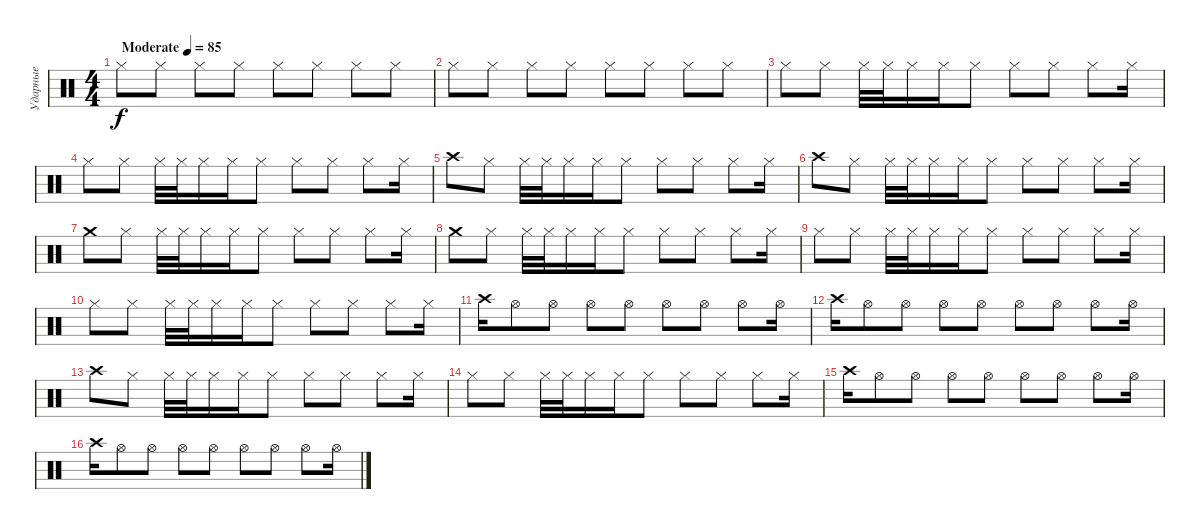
\track ("Ударные" "Ударные") {instrument percussion}
\staff {score}
\articulation defaults
\ts (4 4)
\tempo (85 "Moderate")
\clef neutral
\ks c "Hi-Hat (closed)".8{dy f} "Hi-Hat (closed)".8 "Hi-Hat (closed)".8 "Hi-Hat (closed)".8 "Hi-Hat (closed)".8 "Hi-Hat (closed)".8 "Hi-Hat (closed)".8 "Hi-Hat (closed)".8
|
"Hi-Hat (closed)".8 "Hi-Hat (closed)".8 "Hi-Hat (closed)".8 "Hi-Hat (closed)".8 "Hi-Hat (closed)".8 "Hi-Hat (closed)".8 "Hi-Hat (closed)".8 "Hi-Hat (closed)".8 |
"Hi-Hat (closed)".8 "Hi-Hat (closed)".8 "Hi-Hat (closed)".32 "Hi-Hat (closed)".32 "Hi-Hat (closed)".16 "Hi-Hat (closed)".16 "Hi-Hat (closed)".8 "Hi-Hat (closed)".8 "Hi-Hat (closed)".8 "Hi-Hat (closed)".8 "Hi-Hat (closed)".16 |
"Hi-Hat (closed)".8 "Hi-Hat (closed)".8 "Hi-Hat (closed)".32 "Hi-Hat (closed)".32 "Hi-Hat (closed)".16 "Hi-Hat (closed)".16 "Hi-Hat (closed)".8 "Hi-Hat (closed)".8 "Hi-Hat (closed)".8 "Hi-Hat (closed)".8 "Hi-Hat (closed)".16 |
"Crash high (hit)".8 "Hi-Hat (closed)".8 "Hi-Hat (closed)".32 "Hi-Hat (closed)".32 "Hi-Hat (closed)".16 "Hi-Hat (closed)".16 "Hi-Hat (closed)".8 "Hi-Hat (closed)".8 "Hi-Hat (closed)".8 "Hi-Hat (closed)".8 "Hi-Hat (closed)".16 |
"Crash high (hit)".8 "Hi-Hat (closed)".8 "Hi-Hat (closed)".32 "Hi-Hat (closed)".32 "Hi-Hat (closed)".16 "Hi-Hat (closed)".16 "Hi-Hat (closed)".8 "Hi-Hat (closed)".8 "Hi-Hat (closed)".8 "Hi-Hat (closed)".8 "Hi-Hat (closed)".16 |
"Crash medium (hit)".8 "Hi-Hat (closed)".8 "Hi-Hat (closed)".32 "Hi-Hat (closed)".32 "Hi-Hat (closed)".16 "Hi-Hat (closed)".16 "Hi-Hat (closed)".8 "Hi-Hat (closed)".8 "Hi-Hat (closed)".8 "Hi-Hat (closed)".8 "Hi-Hat (closed)".16 |
"Crash medium (hit)".8 "Hi-Hat (closed)".8 "Hi-Hat (closed)".32 "Hi-Hat (closed)".32 "Hi-Hat (closed)".16 "Hi-Hat (closed)".16 "Hi-Hat (closed)".8 "Hi-Hat (closed)".8 "Hi-Hat (closed)".8 "Hi-Hat (closed)".8 "Hi-Hat (closed)".16 |
"Hi-Hat (closed)".8 "Hi-Hat (closed)".8 "Hi-Hat (closed)".32 "Hi-Hat (closed)".32 "Hi-Hat (closed)".16 "Hi-Hat (closed)".16 "Hi-Hat (closed)".8 "Hi-Hat (closed)".8 "Hi-Hat (closed)".8 "Hi-Hat (closed)".8 "Hi-Hat (closed)".16 |
"Hi-Hat (closed)".8 "Hi-Hat (closed)".8 "Hi-Hat (closed)".32 "Hi-Hat (closed)".32 "Hi-Hat (closed)".16 "Hi-Hat (closed)".16 "Hi-Hat (closed)".8 "Hi-Hat (closed)".8 "Hi-Hat (closed)".8 "Hi-Hat (closed)".8 "Hi-Hat (closed)".16 |
"Crash high (hit)".16 "Hi-Hat (open)".8 "Hi-Hat (open)".8 "Hi-Hat (open)".8 "Hi-Hat (open)".8 "Hi-Hat (open)".8 "Hi-Hat (open)".8 "Hi-Hat (open)".8 "Hi-Hat (open)".16 |
"Crash high (hit)".16 "Hi-Hat (open)".8 "Hi-Hat (open)".8 "Hi-Hat (open)".8 "Hi-Hat (open)".8 "Hi-Hat (open)".8 "Hi-Hat (open)".8 "Hi-Hat (open)".8 "Hi-Hat (open)".16 |
"Crash high (hit)".8 "Hi-Hat (closed)".8 "Hi-Hat (closed)".32 "Hi-Hat (closed)".32 "Hi-Hat (closed)".16 "Hi-Hat (closed)".16 "Hi-Hat (closed)".8 "Hi-Hat (closed)".8 "Hi-Hat (closed)".8 "Hi-Hat (closed)".8 "Hi-Hat (closed)".16 |
"Hi-Hat (closed)".8 "Hi-Hat (closed)".8 "Hi-Hat (closed)".32 "Hi-Hat (closed)".32 "Hi-Hat (closed)".16 "Hi-Hat (closed)".16 "Hi-Hat (closed)".8 "Hi-Hat (closed)".8 "Hi-Hat (closed)".8 "Hi-Hat (closed)".8 "Hi-Hat (closed)".16 |
"Crash high (hit)".16 "Hi-Hat (open)".8 "Hi-Hat (open)".8 "Hi-Hat (open)".8 "Hi-Hat (open)".8 "Hi-Hat (open)".8 "Hi-Hat (open)".8 "Hi-Hat (open)".8 "Hi-Hat (open)".16 |
"Crash high (hit)".16 "Hi-Hat (open)".8 "Hi-Hat (open)".8 "Hi-Hat (open)".8 "Hi-Hat (open)".8 "Hi-Hat (open)".8 "Hi-Hat (open)".8 "Hi-Hat (open)".8 "Hi-Hat (open)".16
